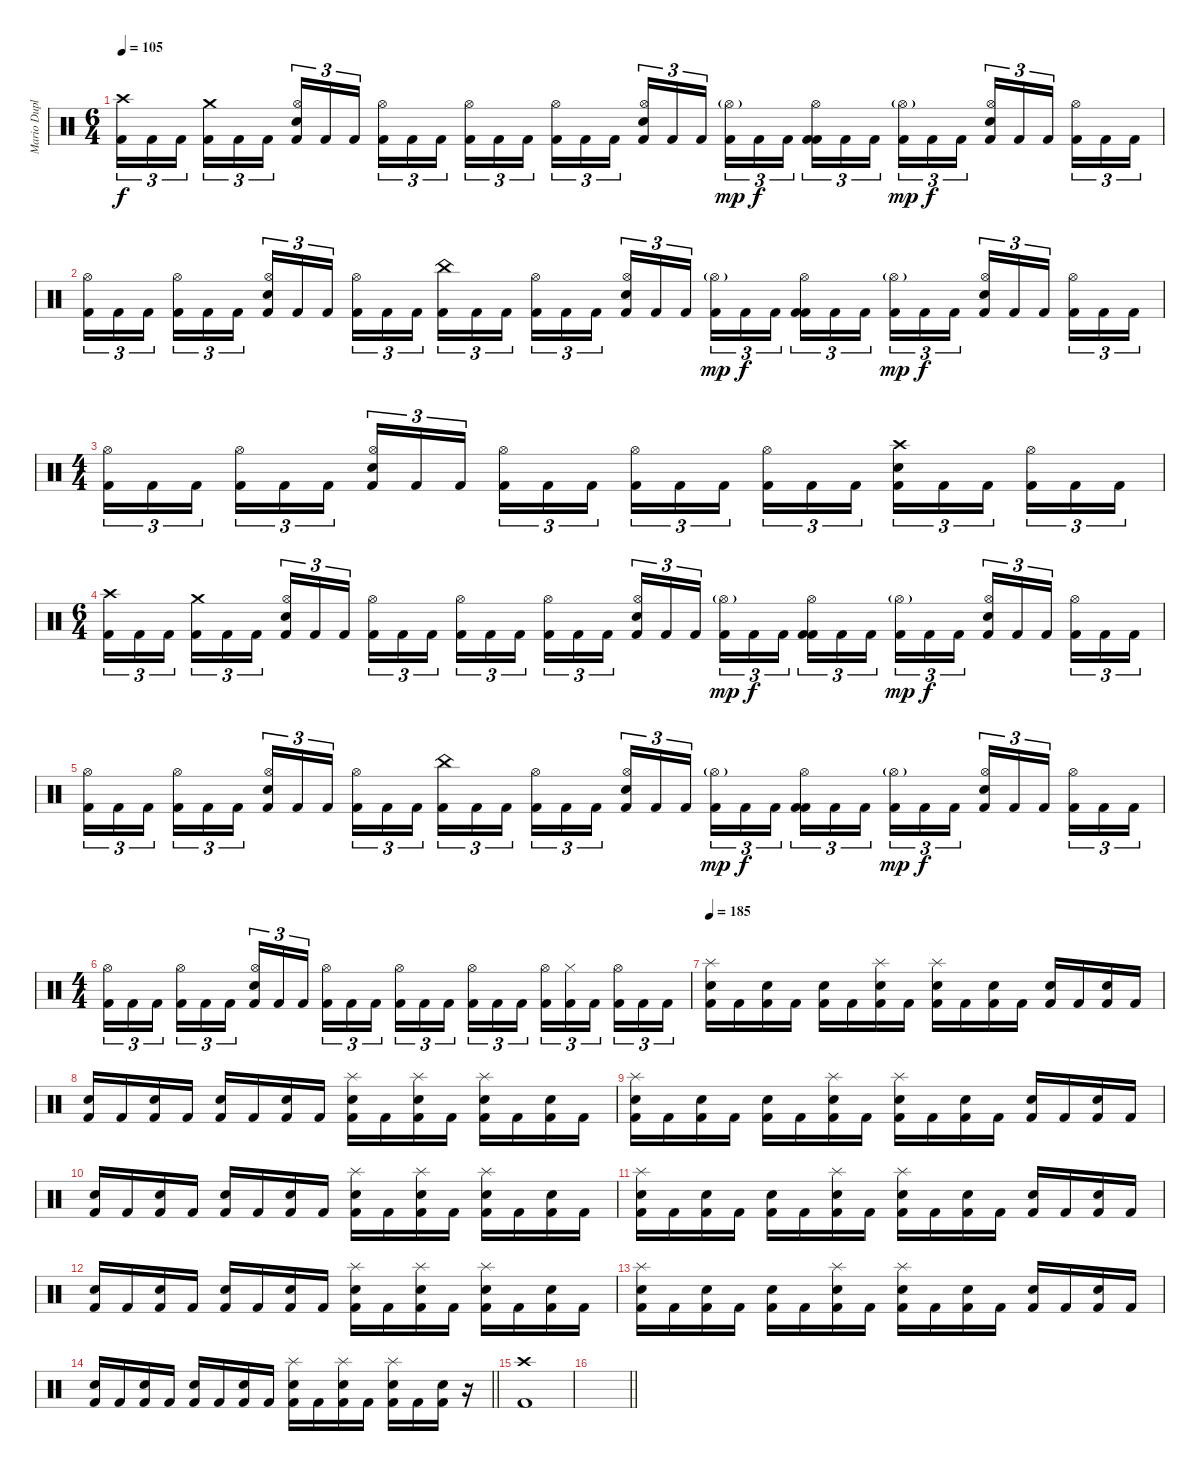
\track ("Mario Duplantier" "Mario Dupl") {instrument percussion}
\staff {score}
\articulation defaults
\ts (6 4)
\tempo 105
\clef neutral
\ks c
("Crash high (hit)" "Kick (hit) 2").16{tu (3 2) dy f} "Kick (hit) 2".16{tu (3 2)} "Kick (hit) 2".16{tu (3 2) beam splitsecondary} ("Crash medium (hit)" "Kick (hit) 2").16{tu (3 2)} "Kick (hit) 2".16{tu (3 2)} "Kick (hit) 2".16{tu (3 2) beam splitsecondary} ("Hi-Hat (open)" "Electric Snare (hit)" "Kick (hit) 2").16{tu (3 2)} "Kick (hit) 2".16{tu (3 2)} "Kick (hit) 2".16{tu (3 2) beam splitsecondary} ("Hi-Hat (open)" "Kick (hit) 2").16{tu (3 2)} "Kick (hit) 2".16{tu (3 2)} "Kick (hit) 2".16{tu (3 2) beam splitsecondary} ("Hi-Hat (open)" "Kick (hit) 2").16{tu (3 2)} "Kick (hit) 2".16{tu (3 2)} "Kick (hit) 2".16{tu (3 2) beam splitsecondary} ("Hi-Hat (open)" "Kick (hit) 2").16{tu (3 2)} "Kick (hit) 2".16{tu (3 2)} "Kick (hit) 2".16{tu (3 2)} ("Hi-Hat (open)" "Electric Snare (hit)" "Kick (hit) 2").16{tu (3 2)} "Kick (hit) 2".16{tu (3 2)} "Kick (hit) 2".16{tu (3 2) beam splitsecondary} ("Hi-Hat (open)"{g} "Kick (hit) 2").16{tu (3 2) dy mp} "Kick (hit) 2".16{tu (3 2) dy f} "Kick (hit) 2".16{tu (3 2) beam splitsecondary} ("Hi-Hat (open)" "Kick (hit) 2" "Kick (hit) 2").16{tu (3 2)} "Kick (hit) 2".16{tu (3 2)} "Kick (hit) 2".16{tu (3 2) beam splitsecondary} ("Hi-Hat (open)"{g} "Kick (hit) 2").16{tu (3 2) dy mp} "Kick (hit) 2".16{tu (3 2) dy f} "Kick (hit) 2".16{tu (3 2) beam splitsecondary} ("Hi-Hat (open)" "Electric Snare (hit)" "Kick (hit) 2").16{tu (3 2)} "Kick (hit) 2".16{tu (3 2)} "Kick (hit) 2".16{tu (3 2) beam splitsecondary} ("Hi-Hat (open)" "Kick (hit) 2").16{tu (3 2)} "Kick (hit) 2".16{tu (3 2)} "Kick (hit) 2".16{tu (3 2)} |
("Hi-Hat (open)" "Kick (hit) 2").16{tu (3 2)} "Kick (hit) 2".16{tu (3 2)} "Kick (hit) 2".16{tu (3 2) beam splitsecondary} ("Hi-Hat (open)" "Kick (hit) 2").16{tu (3 2)} "Kick (hit) 2".16{tu (3 2)} "Kick (hit) 2".16{tu (3 2) beam splitsecondary} ("Hi-Hat (open)" "Electric Snare (hit)" "Kick (hit) 2").16{tu (3 2)} "Kick (hit) 2".16{tu (3 2)} "Kick (hit) 2".16{tu (3 2) beam splitsecondary} ("Hi-Hat (open)" "Kick (hit) 2").16{tu (3 2)} "Kick (hit) 2".16{tu (3 2)} "Kick (hit) 2".16{tu (3 2) beam splitsecondary} ("China (hit)" "Kick (hit) 2").16{tu (3 2)} "Kick (hit) 2".16{tu (3 2)} "Kick (hit) 2".16{tu (3 2) beam splitsecondary} ("Hi-Hat (open)" "Kick (hit) 2").16{tu (3 2)} "Kick (hit) 2".16{tu (3 2)} "Kick (hit) 2".16{tu (3 2)} ("Hi-Hat (open)" "Electric Snare (hit)" "Kick (hit) 2").16{tu (3 2)} "Kick (hit) 2".16{tu (3 2)} "Kick (hit) 2".16{tu (3 2) beam splitsecondary} ("Hi-Hat (open)"{g} "Kick (hit) 2").16{tu (3 2) dy mp} "Kick (hit) 2".16{tu (3 2) dy f} "Kick (hit) 2".16{tu (3 2) beam splitsecondary} ("Hi-Hat (open)" "Kick (hit) 2" "Kick (hit) 2").16{tu (3 2)} "Kick (hit) 2".16{tu (3 2)} "Kick (hit) 2".16{tu (3 2) beam splitsecondary} ("Hi-Hat (open)"{g} "Kick (hit) 2").16{tu (3 2) dy mp} "Kick (hit) 2".16{tu (3 2) dy f} "Kick (hit) 2".16{tu (3 2) beam splitsecondary} ("Hi-Hat (open)" "Electric Snare (hit)" "Kick (hit) 2").16{tu (3 2)} "Kick (hit) 2".16{tu (3 2)} "Kick (hit) 2".16{tu (3 2) beam splitsecondary} ("Hi-Hat (open)" "Kick (hit) 2").16{tu (3 2)} "Kick (hit) 2".16{tu (3 2)} "Kick (hit) 2".16{tu (3 2)} |
\ts (4 4)
("Hi-Hat (open)" "Kick (hit) 2").16{tu (3 2)} "Kick (hit) 2".16{tu (3 2)} "Kick (hit) 2".16{tu (3 2) beam splitsecondary} ("Hi-Hat (open)" "Kick (hit) 2").16{tu (3 2)} "Kick (hit) 2".16{tu (3 2)} "Kick (hit) 2".16{tu (3 2)} ("Hi-Hat (open)" "Electric Snare (hit)" "Kick (hit) 2").16{tu (3 2)} "Kick (hit) 2".16{tu (3 2)} "Kick (hit) 2".16{tu (3 2) beam splitsecondary} ("Hi-Hat (open)" "Kick (hit) 2").16{tu (3 2)} "Kick (hit) 2".16{tu (3 2)} "Kick (hit) 2".16{tu (3 2)} ("Hi-Hat (open)" "Kick (hit) 2").16{tu (3 2)} "Kick (hit) 2".16{tu (3 2)} "Kick (hit) 2".16{tu (3 2) beam splitsecondary} ("Hi-Hat (open)" "Kick (hit) 2").16{tu (3 2)} "Kick (hit) 2".16{tu (3 2)} "Kick (hit) 2".16{tu (3 2)} ("Crash high (hit)" "Electric Snare (hit)" "Kick (hit) 2").16{tu (3 2)} "Kick (hit) 2".16{tu (3 2)} "Kick (hit) 2".16{tu (3 2) beam splitsecondary} ("Hi-Hat (open)" "Kick (hit) 2").16{tu (3 2)} "Kick (hit) 2".16{tu (3 2)} "Kick (hit) 2".16{tu (3 2)} |
\ts (6 4)
("Crash high (hit)" "Kick (hit) 2").16{tu (3 2)} "Kick (hit) 2".16{tu (3 2)} "Kick (hit) 2".16{tu (3 2) beam splitsecondary} ("Crash medium (hit)" "Kick (hit) 2").16{tu (3 2)} "Kick (hit) 2".16{tu (3 2)} "Kick (hit) 2".16{tu (3 2) beam splitsecondary} ("Hi-Hat (open)" "Electric Snare (hit)" "Kick (hit) 2").16{tu (3 2)} "Kick (hit) 2".16{tu (3 2)} "Kick (hit) 2".16{tu (3 2) beam splitsecondary} ("Hi-Hat (open)" "Kick (hit) 2").16{tu (3 2)} "Kick (hit) 2".16{tu (3 2)} "Kick (hit) 2".16{tu (3 2) beam splitsecondary} ("Hi-Hat (open)" "Kick (hit) 2").16{tu (3 2)} "Kick (hit) 2".16{tu (3 2)} "Kick (hit) 2".16{tu (3 2) beam splitsecondary} ("Hi-Hat (open)" "Kick (hit) 2").16{tu (3 2)} "Kick (hit) 2".16{tu (3 2)} "Kick (hit) 2".16{tu (3 2)} ("Hi-Hat (open)" "Electric Snare (hit)" "Kick (hit) 2").16{tu (3 2)} "Kick (hit) 2".16{tu (3 2)} "Kick (hit) 2".16{tu (3 2) beam splitsecondary} ("Hi-Hat (open)"{g} "Kick (hit) 2").16{tu (3 2) dy mp} "Kick (hit) 2".16{tu (3 2) dy f} "Kick (hit) 2".16{tu (3 2) beam splitsecondary} ("Hi-Hat (open)" "Kick (hit) 2" "Kick (hit) 2").16{tu (3 2)} "Kick (hit) 2".16{tu (3 2)} "Kick (hit) 2".16{tu (3 2) beam splitsecondary} ("Hi-Hat (open)"{g} "Kick (hit) 2").16{tu (3 2) dy mp} "Kick (hit) 2".16{tu (3 2) dy f} "Kick (hit) 2".16{tu (3 2) beam splitsecondary} ("Hi-Hat (open)" "Electric Snare (hit)" "Kick (hit) 2").16{tu (3 2)} "Kick (hit) 2".16{tu (3 2)} "Kick (hit) 2".16{tu (3 2) beam splitsecondary} ("Hi-Hat (open)" "Kick (hit) 2").16{tu (3 2)} "Kick (hit) 2".16{tu (3 2)} "Kick (hit) 2".16{tu (3 2)} |
("Hi-Hat (open)" "Kick (hit) 2").16{tu (3 2)} "Kick (hit) 2".16{tu (3 2)} "Kick (hit) 2".16{tu (3 2) beam splitsecondary} ("Hi-Hat (open)" "Kick (hit) 2").16{tu (3 2)} "Kick (hit) 2".16{tu (3 2)} "Kick (hit) 2".16{tu (3 2) beam splitsecondary} ("Hi-Hat (open)" "Electric Snare (hit)" "Kick (hit) 2").16{tu (3 2)} "Kick (hit) 2".16{tu (3 2)} "Kick (hit) 2".16{tu (3 2) beam splitsecondary} ("Hi-Hat (open)" "Kick (hit) 2").16{tu (3 2)} "Kick (hit) 2".16{tu (3 2)} "Kick (hit) 2".16{tu (3 2) beam splitsecondary} ("China (hit)" "Kick (hit) 2").16{tu (3 2)} "Kick (hit) 2".16{tu (3 2)} "Kick (hit) 2".16{tu (3 2) beam splitsecondary} ("Hi-Hat (open)" "Kick (hit) 2").16{tu (3 2)} "Kick (hit) 2".16{tu (3 2)} "Kick (hit) 2".16{tu (3 2)} ("Hi-Hat (open)" "Electric Snare (hit)" "Kick (hit) 2").16{tu (3 2)} "Kick (hit) 2".16{tu (3 2)} "Kick (hit) 2".16{tu (3 2) beam splitsecondary} ("Hi-Hat (open)"{g} "Kick (hit) 2").16{tu (3 2) dy mp} "Kick (hit) 2".16{tu (3 2) dy f} "Kick (hit) 2".16{tu (3 2) beam splitsecondary} ("Hi-Hat (open)" "Kick (hit) 2" "Kick (hit) 2").16{tu (3 2)} "Kick (hit) 2".16{tu (3 2)} "Kick (hit) 2".16{tu (3 2) beam splitsecondary} ("Hi-Hat (open)"{g} "Kick (hit) 2").16{tu (3 2) dy mp} "Kick (hit) 2".16{tu (3 2) dy f} "Kick (hit) 2".16{tu (3 2) beam splitsecondary} ("Hi-Hat (open)" "Electric Snare (hit)" "Kick (hit) 2").16{tu (3 2)} "Kick (hit) 2".16{tu (3 2)} "Kick (hit) 2".16{tu (3 2) beam splitsecondary} ("Hi-Hat (open)" "Kick (hit) 2").16{tu (3 2)} "Kick (hit) 2".16{tu (3 2)} "Kick (hit) 2".16{tu (3 2)} |
\ts (4 4)
("Hi-Hat (open)" "Kick (hit) 2").16{tu (3 2)} "Kick (hit) 2".16{tu (3 2)} "Kick (hit) 2".16{tu (3 2) beam splitsecondary} ("Hi-Hat (open)" "Kick (hit) 2").16{tu (3 2)} "Kick (hit) 2".16{tu (3 2)} "Kick (hit) 2".16{tu (3 2)} ("Hi-Hat (open)" "Electric Snare (hit)" "Kick (hit) 2").16{tu (3 2)} "Kick (hit) 2".16{tu (3 2)} "Kick (hit) 2".16{tu (3 2) beam splitsecondary} ("Hi-Hat (open)" "Kick (hit) 2").16{tu (3 2)} "Kick (hit) 2".16{tu (3 2)} "Kick (hit) 2".16{tu (3 2)} ("Hi-Hat (open)" "Kick (hit) 2").16{tu (3 2)} "Kick (hit) 2".16{tu (3 2)} "Kick (hit) 2".16{tu (3 2) beam splitsecondary} ("Hi-Hat (open)" "Kick (hit) 2").16{tu (3 2)} "Kick (hit) 2".16{tu (3 2)} "Kick (hit) 2".16{tu (3 2)} ("Hi-Hat (open)" "Kick (hit) 2").16{tu (3 2)} ("Hi-Hat (closed)" "Kick (hit) 2").16{tu (3 2)} "Kick (hit) 2".16{tu (3 2) beam splitsecondary} ("Hi-Hat (open)" "Kick (hit) 2").16{tu (3 2)} "Kick (hit) 2".16{tu (3 2)} "Kick (hit) 2".16{tu (3 2)} |
\tempo 185
("Splash (hit)" "Electric Snare (hit)" "Kick (hit) 2").16 "Kick (hit) 2".16 ("Electric Snare (hit)" "Kick (hit) 2").16 "Kick (hit) 2".16 ("Electric Snare (hit)" "Kick (hit) 2").16 "Kick (hit) 2".16 ("Splash (hit)" "Electric Snare (hit)" "Kick (hit) 2").16 "Kick (hit) 2".16 ("Splash (hit)" "Electric Snare (hit)" "Kick (hit) 2").16 "Kick (hit) 2".16 ("Electric Snare (hit)" "Kick (hit) 2").16 "Kick (hit) 2".16 ("Electric Snare (hit)" "Kick (hit) 2").16 "Kick (hit) 2".16 ("Electric Snare (hit)" "Kick (hit) 2").16 "Kick (hit) 2".16 |
("Electric Snare (hit)" "Kick (hit) 2").16 "Kick (hit) 2".16 ("Electric Snare (hit)" "Kick (hit) 2").16 "Kick (hit) 2".16 ("Electric Snare (hit)" "Kick (hit) 2").16 "Kick (hit) 2".16 ("Electric Snare (hit)" "Kick (hit) 2").16 "Kick (hit) 2".16 ("Splash (hit)" "Electric Snare (hit)" "Kick (hit) 2").16 "Kick (hit) 2".16 ("Splash (hit)" "Electric Snare (hit)" "Kick (hit) 2").16 "Kick (hit) 2".16 ("Splash (hit)" "Electric Snare (hit)" "Kick (hit) 2").16 "Kick (hit) 2".16 ("Electric Snare (hit)" "Kick (hit) 2").16 "Kick (hit) 2".16 |
("Splash (hit)" "Electric Snare (hit)" "Kick (hit) 2").16 "Kick (hit) 2".16 ("Electric Snare (hit)" "Kick (hit) 2").16 "Kick (hit) 2".16 ("Electric Snare (hit)" "Kick (hit) 2").16 "Kick (hit) 2".16 ("Splash (hit)" "Electric Snare (hit)" "Kick (hit) 2").16 "Kick (hit) 2".16 ("Splash (hit)" "Electric Snare (hit)" "Kick (hit) 2").16 "Kick (hit) 2".16 ("Electric Snare (hit)" "Kick (hit) 2").16 "Kick (hit) 2".16 ("Electric Snare (hit)" "Kick (hit) 2").16 "Kick (hit) 2".16 ("Electric Snare (hit)" "Kick (hit) 2").16 "Kick (hit) 2".16 |
("Electric Snare (hit)" "Kick (hit) 2").16 "Kick (hit) 2".16 ("Electric Snare (hit)" "Kick (hit) 2").16 "Kick (hit) 2".16 ("Electric Snare (hit)" "Kick (hit) 2").16 "Kick (hit) 2".16 ("Electric Snare (hit)" "Kick (hit) 2").16 "Kick (hit) 2".16 ("Splash (hit)" "Electric Snare (hit)" "Kick (hit) 2").16 "Kick (hit) 2".16 ("Splash (hit)" "Electric Snare (hit)" "Kick (hit) 2").16 "Kick (hit) 2".16 ("Splash (hit)" "Electric Snare (hit)" "Kick (hit) 2").16 "Kick (hit) 2".16 ("Electric Snare (hit)" "Kick (hit) 2").16 "Kick (hit) 2".16 |
("Splash (hit)" "Electric Snare (hit)" "Kick (hit) 2").16 "Kick (hit) 2".16 ("Electric Snare (hit)" "Kick (hit) 2").16 "Kick (hit) 2".16 ("Electric Snare (hit)" "Kick (hit) 2").16 "Kick (hit) 2".16 ("Splash (hit)" "Electric Snare (hit)" "Kick (hit) 2").16 "Kick (hit) 2".16 ("Splash (hit)" "Electric Snare (hit)" "Kick (hit) 2").16 "Kick (hit) 2".16 ("Electric Snare (hit)" "Kick (hit) 2").16 "Kick (hit) 2".16 ("Electric Snare (hit)" "Kick (hit) 2").16 "Kick (hit) 2".16 ("Electric Snare (hit)" "Kick (hit) 2").16 "Kick (hit) 2".16 |
("Electric Snare (hit)" "Kick (hit) 2").16 "Kick (hit) 2".16 ("Electric Snare (hit)" "Kick (hit) 2").16 "Kick (hit) 2".16 ("Electric Snare (hit)" "Kick (hit) 2").16 "Kick (hit) 2".16 ("Electric Snare (hit)" "Kick (hit) 2").16 "Kick (hit) 2".16 ("Splash (hit)" "Electric Snare (hit)" "Kick (hit) 2").16 "Kick (hit) 2".16 ("Splash (hit)" "Electric Snare (hit)" "Kick (hit) 2").16 "Kick (hit) 2".16 ("Splash (hit)" "Electric Snare (hit)" "Kick (hit) 2").16 "Kick (hit) 2".16 ("Electric Snare (hit)" "Kick (hit) 2").16 "Kick (hit) 2".16 |
("Splash (hit)" "Electric Snare (hit)" "Kick (hit) 2").16 "Kick (hit) 2".16 ("Electric Snare (hit)" "Kick (hit) 2").16 "Kick (hit) 2".16 ("Electric Snare (hit)" "Kick (hit) 2").16 "Kick (hit) 2".16 ("Splash (hit)" "Electric Snare (hit)" "Kick (hit) 2").16 "Kick (hit) 2".16 ("Splash (hit)" "Electric Snare (hit)" "Kick (hit) 2").16 "Kick (hit) 2".16 ("Electric Snare (hit)" "Kick (hit) 2").16 "Kick (hit) 2".16 ("Electric Snare (hit)" "Kick (hit) 2").16 "Kick (hit) 2".16 ("Electric Snare (hit)" "Kick (hit) 2").16 "Kick (hit) 2".16 |
\barLineRight lightlight
("Electric Snare (hit)" "Kick (hit) 2").16 "Kick (hit) 2".16 ("Electric Snare (hit)" "Kick (hit) 2").16 "Kick (hit) 2".16 ("Electric Snare (hit)" "Kick (hit) 2").16 "Kick (hit) 2".16 ("Electric Snare (hit)" "Kick (hit) 2").16 "Kick (hit) 2".16 ("Splash (hit)" "Electric Snare (hit)" "Kick (hit) 2").16 "Kick (hit) 2".16 ("Splash (hit)" "Electric Snare (hit)" "Kick (hit) 2").16 "Kick (hit) 2".16 ("Splash (hit)" "Electric Snare (hit)" "Kick (hit) 2").16 "Kick (hit) 2".16 ("Electric Snare (hit)" "Kick (hit) 2").16 r.16 |
("Crash high (hit)" "Kick (hit) 2").1 |
\barLineRight lightlight
